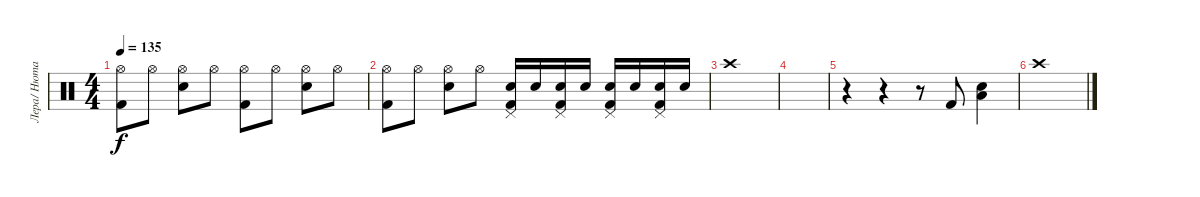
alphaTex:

\track ("Лера/ Нюта" "Лера/ Нюта") {instrument percussion}
\staff {score}
\articulation defaults
\ts (4 4)
\tempo 135
\clef neutral
\ks c
("Hi-Hat (open)" "Kick (hit) 2").8{dy f} "Hi-Hat (open)".8 ("Hi-Hat (open)" "Electric Snare (hit)").8 "Hi-Hat (open)".8 ("Hi-Hat (open)" "Kick (hit) 2").8 "Hi-Hat (open)".8 ("Hi-Hat (open)" "Electric Snare (hit)").8 "Hi-Hat (open)".8 |
("Hi-Hat (open)" "Kick (hit) 2").8 "Hi-Hat (open)".8 ("Hi-Hat (open)" "Electric Snare (hit)").8 "Hi-Hat (open)".8 ("Electric Snare (hit)" "Kick (hit) 2" "Pedal Hi-Hat (hit)").16 "Electric Snare (hit)".16 ("Electric Snare (hit)" "Kick (hit) 2" "Pedal Hi-Hat (hit)").16 "Electric Snare (hit)".16 ("Electric Snare (hit)" "Kick (hit) 2" "Pedal Hi-Hat (hit)").16 "Electric Snare (hit)".16 ("Electric Snare (hit)" "Kick (hit) 2" "Pedal Hi-Hat (hit)").16 "Electric Snare (hit)".16 |
"Crash high (hit)".1 |
|
r.4 r.4 r.8 "Kick (hit) 2".8 ("Electric Snare (hit)" "Low Tom (hit)").4 |
"Crash high (hit)".1
